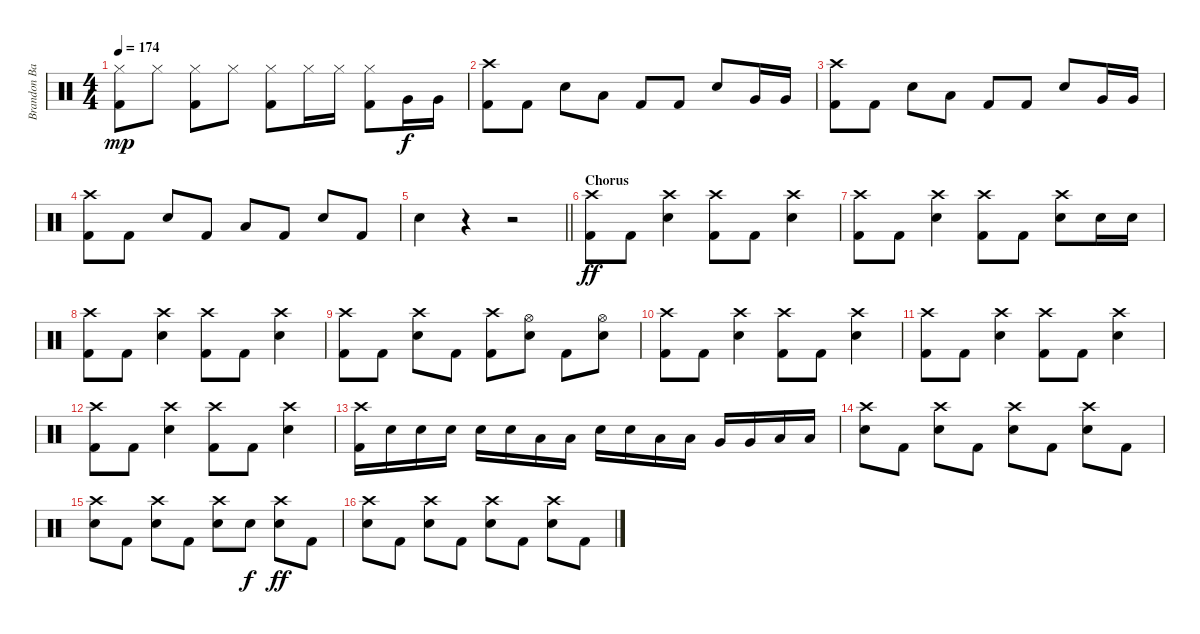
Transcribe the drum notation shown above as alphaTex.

\track ("Brandon Barnes - Drums" "Brandon Ba") {instrument percussion}
\staff {score}
\articulation defaults
\ts (4 4)
\tempo 174
\clef neutral
\ks c
("Hi-Hat (closed)" "Kick (hit) 2").8{dy mp} "Hi-Hat (closed)".8 ("Hi-Hat (closed)" "Kick (hit) 2").8 "Hi-Hat (closed)".8 ("Hi-Hat (closed)" "Kick (hit) 2").8 "Hi-Hat (closed)".16 "Hi-Hat (closed)".16 ("Hi-Hat (closed)" "Kick (hit) 2").8 "Very Low Tom (hit)".16{dy f} "Very Low Tom (hit)".16 |
("Crash high (hit)" "Kick (hit) 2").8 "Kick (hit) 2".8 "Snare (hit) 2".8 "Low Tom (hit)".8 "Kick (hit) 2".8 "Kick (hit) 2".8 "Snare (hit) 2".8 "Very Low Tom (hit)".16 "Very Low Tom (hit)".16 |
("Crash high (hit)" "Kick (hit) 2").8 "Kick (hit) 2".8 "Snare (hit) 2".8 "Low Tom (hit)".8 "Kick (hit) 2".8 "Kick (hit) 2".8 "Snare (hit) 2".8 "Very Low Tom (hit)".16 "Very Low Tom (hit)".16 |
("Crash high (hit)" "Kick (hit) 2").8 "Kick (hit) 2".8 "Snare (hit) 2".8 "Kick (hit) 2".8 "Low Tom (hit)".8 "Kick (hit) 2".8 "Snare (hit) 2".8 "Kick (hit) 2".8 |
\barLineRight lightlight "Snare (hit) 2".4
r.4 r.2 |
\section ("" "Chorus")
("Kick (hit) 2" "Crash high (hit)").8{dy ff} "Kick (hit) 2".8 ("Snare (hit) 2" "Crash high (hit)").4 ("Kick (hit) 2" "Crash high (hit)").8 "Kick (hit) 2".8 ("Snare (hit) 2" "Crash high (hit)").4 |
("Kick (hit) 2" "Crash high (hit)").8 "Kick (hit) 2".8 ("Snare (hit) 2" "Crash high (hit)").4 ("Kick (hit) 2" "Crash high (hit)").8 "Kick (hit) 2".8 ("Snare (hit) 2" "Crash high (hit)").8 "Snare (hit) 2".16 "Snare (hit) 2".16 |
("Kick (hit) 2" "Crash high (hit)").8 "Kick (hit) 2".8 ("Snare (hit) 2" "Crash high (hit)").4 ("Kick (hit) 2" "Crash high (hit)").8 "Kick (hit) 2".8 ("Snare (hit) 2" "Crash high (hit)").4 |
("Kick (hit) 2" "Crash high (hit)").8 "Kick (hit) 2".8 ("Snare (hit) 2" "Crash high (hit)").8 "Kick (hit) 2".8 ("Kick (hit) 2" "Crash high (hit)").8 ("Snare (hit) 2" "Hi-Hat (open)").8 "Kick (hit) 2".8 ("Snare (hit) 2" "Hi-Hat (open)").8 |
("Kick (hit) 2" "Crash high (hit)").8 "Kick (hit) 2".8 ("Snare (hit) 2" "Crash high (hit)").4 ("Kick (hit) 2" "Crash high (hit)").8 "Kick (hit) 2".8 ("Snare (hit) 2" "Crash high (hit)").4 |
("Kick (hit) 2" "Crash high (hit)").8 "Kick (hit) 2".8 ("Snare (hit) 2" "Crash high (hit)").4 ("Kick (hit) 2" "Crash high (hit)").8 "Kick (hit) 2".8 ("Snare (hit) 2" "Crash high (hit)").4 |
("Kick (hit) 2" "Crash high (hit)").8 "Kick (hit) 2".8 ("Snare (hit) 2" "Crash high (hit)").4 ("Kick (hit) 2" "Crash high (hit)").8 "Kick (hit) 2".8 ("Snare (hit) 2" "Crash high (hit)").4 |
("Kick (hit) 2" "Crash high (hit)").16 "Snare (hit) 2".16 "Snare (hit) 2".16 "Snare (hit) 2".16 "Snare (hit) 2".16 "Snare (hit) 2".16 "Low Tom (hit)".16 "Low Tom (hit)".16 "Snare (hit) 2".16 "Snare (hit) 2".16 "Low Tom (hit)".16 "Low Tom (hit)".16 "Very Low Tom (hit)".16 "Very Low Tom (hit)".16 "Low Floor Tom (hit)".16 "Low Floor Tom (hit)".16 |
("Snare (hit) 2" "Crash high (hit)").8 "Kick (hit) 2".8 ("Snare (hit) 2" "Crash high (hit)").8 "Kick (hit) 2".8 ("Snare (hit) 2" "Crash high (hit)").8 "Kick (hit) 2".8 ("Snare (hit) 2" "Crash high (hit)").8 "Kick (hit) 2".8 |
("Snare (hit) 2" "Crash high (hit)").8 "Kick (hit) 2".8 ("Snare (hit) 2" "Crash high (hit)").8 "Kick (hit) 2".8 ("Snare (hit) 2" "Crash high (hit)").8 "Snare (hit) 2".8{dy f} ("Snare (hit) 2" "Crash high (hit)").8{dy ff} "Kick (hit) 2".8 |
("Snare (hit) 2" "Crash high (hit)").8 "Kick (hit) 2".8 ("Snare (hit) 2" "Crash high (hit)").8 "Kick (hit) 2".8 ("Snare (hit) 2" "Crash high (hit)").8 "Kick (hit) 2".8 ("Snare (hit) 2" "Crash high (hit)").8 "Kick (hit) 2".8
